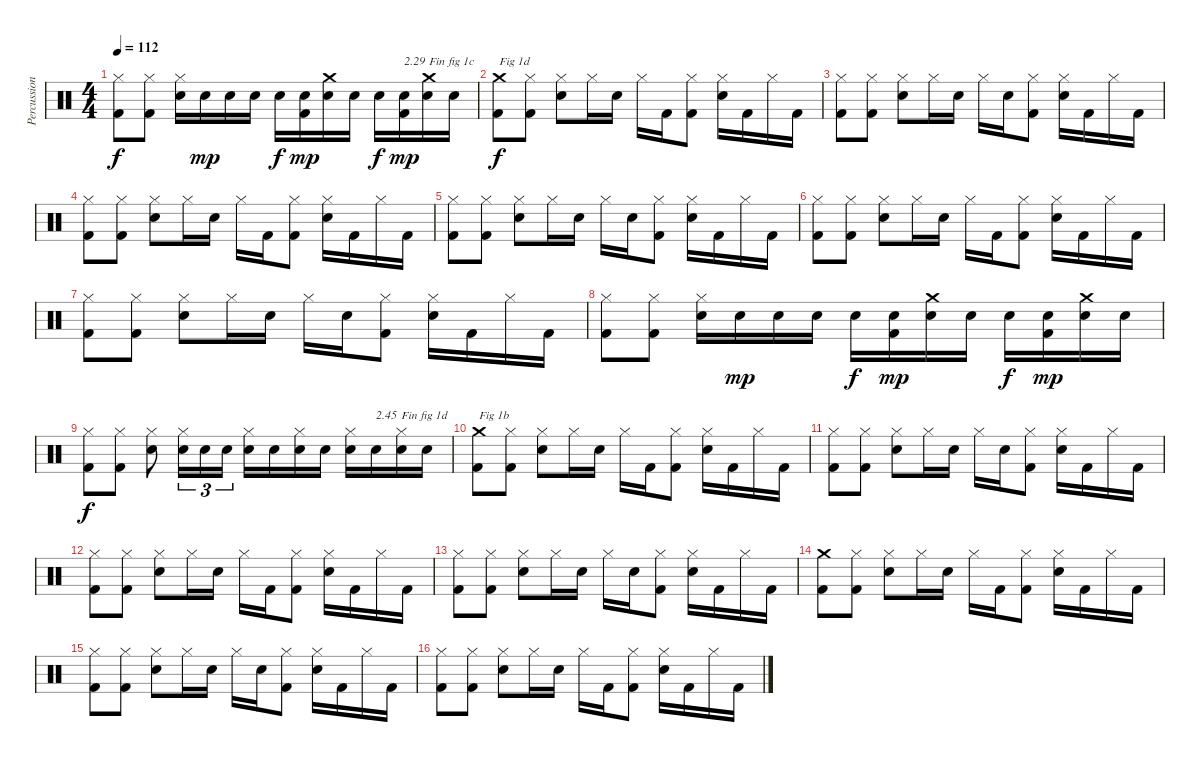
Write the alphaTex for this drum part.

\track ("Percussions" "Percussion") {instrument percussion}
\staff {score}
\articulation defaults
\ts (4 4)
\tempo 112
\clef neutral
\ks c
("Kick (hit) 2" "Hi-Hat (closed)").8{dy f} ("Kick (hit) 2" "Hi-Hat (closed)").8 ("Snare (hit) 2" "Hi-Hat (closed)").16 "Snare (hit) 2".16{dy mp} "Snare (hit) 2".16 "Snare (hit) 2".16 "Snare (hit) 2".16{dy f} ("Kick (hit) 2" "Snare (hit) 2").16{dy mp} ("Snare (hit) 2" "Crash medium (hit)").16 "Snare (hit) 2".16 "Snare (hit) 2".16{dy f} ("Kick (hit) 2" "Snare (hit) 2").16{txt "2.29" dy mp} ("Snare (hit) 2" "Crash medium (hit)").16{txt "Fin fig 1c"} "Snare (hit) 2".16 |
("Kick (hit) 2" "Crash medium (hit)").8{txt "Fig 1d" dy f} ("Kick (hit) 2" "Hi-Hat (closed)").8 ("Snare (hit) 2" "Hi-Hat (closed)").8 "Hi-Hat (closed)".16 "Snare (hit) 2".16 "Hi-Hat (closed)".16 "Kick (hit) 2".16 ("Kick (hit) 2" "Hi-Hat (closed)").8 ("Snare (hit) 2" "Hi-Hat (closed)").16 "Kick (hit) 2".16 "Hi-Hat (closed)".16 "Kick (hit) 2".16 |
("Kick (hit) 2" "Hi-Hat (closed)").8 ("Kick (hit) 2" "Hi-Hat (closed)").8 ("Snare (hit) 2" "Hi-Hat (closed)").8 "Hi-Hat (closed)".16 "Snare (hit) 2".16 "Hi-Hat (closed)".16 "Snare (hit) 2".16 ("Kick (hit) 2" "Hi-Hat (closed)").8 ("Snare (hit) 2" "Hi-Hat (closed)").16 "Kick (hit) 2".16 "Hi-Hat (closed)".16 "Kick (hit) 2".16 |
("Kick (hit) 2" "Hi-Hat (closed)").8 ("Kick (hit) 2" "Hi-Hat (closed)").8 ("Snare (hit) 2" "Hi-Hat (closed)").8 "Hi-Hat (closed)".16 "Snare (hit) 2".16 "Hi-Hat (closed)".16 "Kick (hit) 2".16 ("Kick (hit) 2" "Hi-Hat (closed)").8 ("Snare (hit) 2" "Hi-Hat (closed)").16 "Kick (hit) 2".16 "Hi-Hat (closed)".16 "Kick (hit) 2".16 |
("Kick (hit) 2" "Hi-Hat (closed)").8 ("Kick (hit) 2" "Hi-Hat (closed)").8 ("Snare (hit) 2" "Hi-Hat (closed)").8 "Hi-Hat (closed)".16 "Snare (hit) 2".16 "Hi-Hat (closed)".16 "Snare (hit) 2".16 ("Kick (hit) 2" "Hi-Hat (closed)").8 ("Snare (hit) 2" "Hi-Hat (closed)").16 "Kick (hit) 2".16 "Hi-Hat (closed)".16 "Kick (hit) 2".16 |
("Kick (hit) 2" "Hi-Hat (closed)").8 ("Kick (hit) 2" "Hi-Hat (closed)").8 ("Snare (hit) 2" "Hi-Hat (closed)").8 "Hi-Hat (closed)".16 "Snare (hit) 2".16 "Hi-Hat (closed)".16 "Kick (hit) 2".16 ("Kick (hit) 2" "Hi-Hat (closed)").8 ("Snare (hit) 2" "Hi-Hat (closed)").16 "Kick (hit) 2".16 "Hi-Hat (closed)".16 "Kick (hit) 2".16 |
("Kick (hit) 2" "Hi-Hat (closed)").8 ("Kick (hit) 2" "Hi-Hat (closed)").8 ("Snare (hit) 2" "Hi-Hat (closed)").8 "Hi-Hat (closed)".16 "Snare (hit) 2".16 "Hi-Hat (closed)".16 "Snare (hit) 2".16 ("Kick (hit) 2" "Hi-Hat (closed)").8 ("Snare (hit) 2" "Hi-Hat (closed)").16 "Kick (hit) 2".16 "Hi-Hat (closed)".16 "Kick (hit) 2".16 |
("Kick (hit) 2" "Hi-Hat (closed)").8 ("Kick (hit) 2" "Hi-Hat (closed)").8 ("Snare (hit) 2" "Hi-Hat (closed)").16 "Snare (hit) 2".16{dy mp} "Snare (hit) 2".16 "Snare (hit) 2".16 "Snare (hit) 2".16{dy f} ("Kick (hit) 2" "Snare (hit) 2").16{dy mp} ("Snare (hit) 2" "Crash medium (hit)").16 "Snare (hit) 2".16 "Snare (hit) 2".16{dy f} ("Kick (hit) 2" "Snare (hit) 2").16{dy mp} ("Snare (hit) 2" "Crash medium (hit)").16 "Snare (hit) 2".16 |
("Kick (hit) 2" "Hi-Hat (closed)").8{dy f} ("Kick (hit) 2" "Hi-Hat (closed)").8 ("Snare (hit) 2" "Hi-Hat (closed)").8 ("Snare (hit) 2" "Hi-Hat (closed)").16{tu (3 2)} "Snare (hit) 2".16{tu (3 2)} "Snare (hit) 2".16{tu (3 2)} ("Snare (hit) 2" "Hi-Hat (closed)").16 "Snare (hit) 2".16 ("Snare (hit) 2" "Hi-Hat (closed)").16 "Snare (hit) 2".16 ("Snare (hit) 2" "Hi-Hat (closed)").16 "Snare (hit) 2".16{txt "2.45"} ("Snare (hit) 2" "Hi-Hat (closed)").16{txt "Fin fig 1d"} "Snare (hit) 2".16 |
("Kick (hit) 2" "Crash medium (hit)").8{txt "Fig 1b"} ("Kick (hit) 2" "Hi-Hat (closed)").8 ("Snare (hit) 2" "Hi-Hat (closed)").8 "Hi-Hat (closed)".16 "Snare (hit) 2".16 "Hi-Hat (closed)".16 "Kick (hit) 2".16 ("Kick (hit) 2" "Hi-Hat (closed)").8 ("Snare (hit) 2" "Hi-Hat (closed)").16 "Kick (hit) 2".16 "Hi-Hat (closed)".16 "Kick (hit) 2".16 |
("Kick (hit) 2" "Hi-Hat (closed)").8 ("Kick (hit) 2" "Hi-Hat (closed)").8 ("Snare (hit) 2" "Hi-Hat (closed)").8 "Hi-Hat (closed)".16 "Snare (hit) 2".16 "Hi-Hat (closed)".16 "Snare (hit) 2".16 ("Kick (hit) 2" "Hi-Hat (closed)").8 ("Snare (hit) 2" "Hi-Hat (closed)").16 "Kick (hit) 2".16 "Hi-Hat (closed)".16 "Kick (hit) 2".16 |
("Kick (hit) 2" "Hi-Hat (closed)").8 ("Kick (hit) 2" "Hi-Hat (closed)").8 ("Snare (hit) 2" "Hi-Hat (closed)").8 "Hi-Hat (closed)".16 "Snare (hit) 2".16 "Hi-Hat (closed)".16 "Kick (hit) 2".16 ("Kick (hit) 2" "Hi-Hat (closed)").8 ("Snare (hit) 2" "Hi-Hat (closed)").16 "Kick (hit) 2".16 "Hi-Hat (closed)".16 "Kick (hit) 2".16 |
("Kick (hit) 2" "Hi-Hat (closed)").8 ("Kick (hit) 2" "Hi-Hat (closed)").8 ("Snare (hit) 2" "Hi-Hat (closed)").8 "Hi-Hat (closed)".16 "Snare (hit) 2".16 "Hi-Hat (closed)".16 "Snare (hit) 2".16 ("Kick (hit) 2" "Hi-Hat (closed)").8 ("Snare (hit) 2" "Hi-Hat (closed)").16 "Kick (hit) 2".16 "Hi-Hat (closed)".16 "Kick (hit) 2".16 |
("Kick (hit) 2" "Crash medium (hit)").8 ("Kick (hit) 2" "Hi-Hat (closed)").8 ("Snare (hit) 2" "Hi-Hat (closed)").8 "Hi-Hat (closed)".16 "Snare (hit) 2".16 "Hi-Hat (closed)".16 "Kick (hit) 2".16 ("Kick (hit) 2" "Hi-Hat (closed)").8 ("Snare (hit) 2" "Hi-Hat (closed)").16 "Kick (hit) 2".16 "Hi-Hat (closed)".16 "Kick (hit) 2".16 |
("Kick (hit) 2" "Hi-Hat (closed)").8 ("Kick (hit) 2" "Hi-Hat (closed)").8 ("Snare (hit) 2" "Hi-Hat (closed)").8 "Hi-Hat (closed)".16 "Snare (hit) 2".16 "Hi-Hat (closed)".16 "Snare (hit) 2".16 ("Kick (hit) 2" "Hi-Hat (closed)").8 ("Snare (hit) 2" "Hi-Hat (closed)").16 "Kick (hit) 2".16 "Hi-Hat (closed)".16 "Kick (hit) 2".16 |
("Kick (hit) 2" "Hi-Hat (closed)").8 ("Kick (hit) 2" "Hi-Hat (closed)").8 ("Snare (hit) 2" "Hi-Hat (closed)").8 "Hi-Hat (closed)".16 "Snare (hit) 2".16 "Hi-Hat (closed)".16 "Kick (hit) 2".16 ("Kick (hit) 2" "Hi-Hat (closed)").8 ("Snare (hit) 2" "Hi-Hat (closed)").16 "Kick (hit) 2".16 "Hi-Hat (closed)".16 "Kick (hit) 2".16
